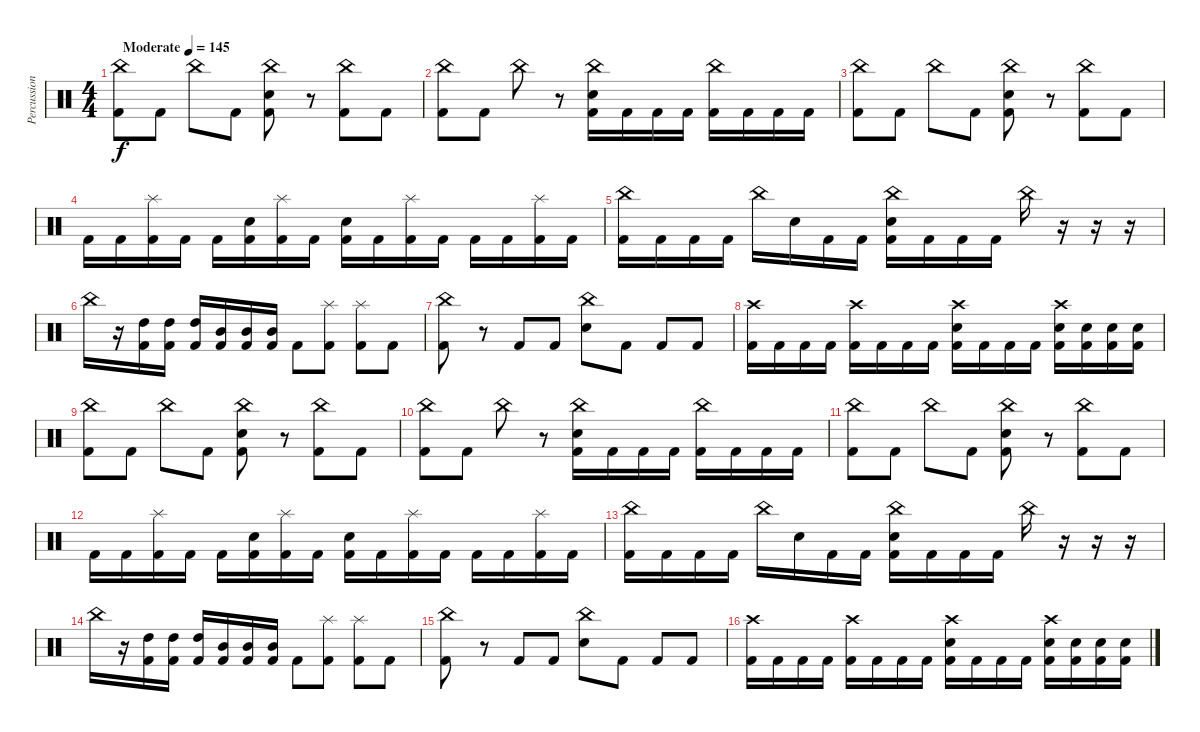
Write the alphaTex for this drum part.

\track ("Percussion" "Percussion") {instrument percussion}
\staff {score}
\articulation defaults
\ts (4 4)
\tempo (145 "Moderate")
\clef neutral
\ks c
("China (hit)" "Kick (hit) 2").8{dy f} "Kick (hit) 2".8 "China (hit)".8 "Kick (hit) 2".8 ("China (hit)" "Snare (hit) 2" "Kick (hit) 2").8 r.8 ("China (hit)" "Kick (hit) 2").8 "Kick (hit) 2".8 |
("China (hit)" "Kick (hit) 2").8 "Kick (hit) 2".8 "China (hit)".8 r.8 ("China (hit)" "Snare (hit) 2" "Kick (hit) 2").16 "Kick (hit) 2".16 "Kick (hit) 2".16 "Kick (hit) 2".16 ("China (hit)" "Kick (hit) 2").16 "Kick (hit) 2".16 "Kick (hit) 2".16 "Kick (hit) 2".16 |
("China (hit)" "Kick (hit) 2").8 "Kick (hit) 2".8 "China (hit)".8 "Kick (hit) 2".8 ("China (hit)" "Snare (hit) 2" "Kick (hit) 2").8 r.8 ("China (hit)" "Kick (hit) 2").8 "Kick (hit) 2".8 |
"Kick (hit) 2".16 "Kick (hit) 2".16 ("Splash (hit)" "Kick (hit) 2").16 "Kick (hit) 2".16 "Kick (hit) 2".16 ("Snare (hit) 2" "Kick (hit) 2").16 ("Splash (hit)" "Kick (hit) 2").16 "Kick (hit) 2".16 ("Snare (hit) 2" "Kick (hit) 2").16 "Kick (hit) 2".16 ("Splash (hit)" "Kick (hit) 2").16 "Kick (hit) 2".16 "Kick (hit) 2".16 "Kick (hit) 2".16 ("Splash (hit)" "Kick (hit) 2").16 "Kick (hit) 2".16 |
("China (hit)" "Kick (hit) 2").16 "Kick (hit) 2".16 "Kick (hit) 2".16 "Kick (hit) 2".16 "China (hit)".16 "Snare (hit) 2".16 "Kick (hit) 2".16 "Kick (hit) 2".16 ("China (hit)" "Snare (hit) 2" "Kick (hit) 2").16 "Kick (hit) 2".16 "Kick (hit) 2".16 "Kick (hit) 2".16 "China (hit)".16 r.16 r.16 r.16 |
"China (hit)".16 r.16 ("High Tom (hit)" "Kick (hit) 2").16 ("High Tom (hit)" "Kick (hit) 2").16 ("High Tom (hit)" "Kick (hit) 2").16 ("Mid Tom (hit)" "Kick (hit) 2").16 ("Mid Tom (hit)" "Kick (hit) 2").16 ("Mid Tom (hit)" "Kick (hit) 2").16 "Kick (hit) 2".8 ("Splash (hit)" "Kick (hit) 2").8 ("Splash (hit)" "Kick (hit) 2").8 "Kick (hit) 2".8 |
("China (hit)" "Kick (hit) 2").8 r.8 "Kick (hit) 2".8 "Kick (hit) 2".8 ("China (hit)" "Snare (hit) 2").8 "Kick (hit) 2".8 "Kick (hit) 2".8 "Kick (hit) 2".8 |
("Crash high (hit)" "Kick (hit) 2").16 "Kick (hit) 2".16 "Kick (hit) 2".16 "Kick (hit) 2".16 ("Crash high (hit)" "Kick (hit) 2").16 "Kick (hit) 2".16 "Kick (hit) 2".16 "Kick (hit) 2".16 ("Crash high (hit)" "Snare (hit) 2" "Kick (hit) 2").16 "Kick (hit) 2".16 "Kick (hit) 2".16 "Kick (hit) 2".16 ("Crash high (hit)" "Snare (hit) 2" "Kick (hit) 2").16 ("Snare (hit) 2" "Kick (hit) 2").16 ("Snare (hit) 2" "Kick (hit) 2").16 ("Snare (hit) 2" "Kick (hit) 2").16 |
("China (hit)" "Kick (hit) 2").8 "Kick (hit) 2".8 "China (hit)".8 "Kick (hit) 2".8 ("China (hit)" "Snare (hit) 2" "Kick (hit) 2").8 r.8 ("China (hit)" "Kick (hit) 2").8 "Kick (hit) 2".8 |
("China (hit)" "Kick (hit) 2").8 "Kick (hit) 2".8 "China (hit)".8 r.8 ("China (hit)" "Snare (hit) 2" "Kick (hit) 2").16 "Kick (hit) 2".16 "Kick (hit) 2".16 "Kick (hit) 2".16 ("China (hit)" "Kick (hit) 2").16 "Kick (hit) 2".16 "Kick (hit) 2".16 "Kick (hit) 2".16 |
("China (hit)" "Kick (hit) 2").8 "Kick (hit) 2".8 "China (hit)".8 "Kick (hit) 2".8 ("China (hit)" "Snare (hit) 2" "Kick (hit) 2").8 r.8 ("China (hit)" "Kick (hit) 2").8 "Kick (hit) 2".8 |
"Kick (hit) 2".16 "Kick (hit) 2".16 ("Splash (hit)" "Kick (hit) 2").16 "Kick (hit) 2".16 "Kick (hit) 2".16 ("Snare (hit) 2" "Kick (hit) 2").16 ("Splash (hit)" "Kick (hit) 2").16 "Kick (hit) 2".16 ("Snare (hit) 2" "Kick (hit) 2").16 "Kick (hit) 2".16 ("Splash (hit)" "Kick (hit) 2").16 "Kick (hit) 2".16 "Kick (hit) 2".16 "Kick (hit) 2".16 ("Splash (hit)" "Kick (hit) 2").16 "Kick (hit) 2".16 |
("China (hit)" "Kick (hit) 2").16 "Kick (hit) 2".16 "Kick (hit) 2".16 "Kick (hit) 2".16 "China (hit)".16 "Snare (hit) 2".16 "Kick (hit) 2".16 "Kick (hit) 2".16 ("China (hit)" "Snare (hit) 2" "Kick (hit) 2").16 "Kick (hit) 2".16 "Kick (hit) 2".16 "Kick (hit) 2".16 "China (hit)".16 r.16 r.16 r.16 |
"China (hit)".16 r.16 ("High Tom (hit)" "Kick (hit) 2").16 ("High Tom (hit)" "Kick (hit) 2").16 ("High Tom (hit)" "Kick (hit) 2").16 ("Mid Tom (hit)" "Kick (hit) 2").16 ("Mid Tom (hit)" "Kick (hit) 2").16 ("Mid Tom (hit)" "Kick (hit) 2").16 "Kick (hit) 2".8 ("Splash (hit)" "Kick (hit) 2").8 ("Splash (hit)" "Kick (hit) 2").8 "Kick (hit) 2".8 |
("China (hit)" "Kick (hit) 2").8 r.8 "Kick (hit) 2".8 "Kick (hit) 2".8 ("China (hit)" "Snare (hit) 2").8 "Kick (hit) 2".8 "Kick (hit) 2".8 "Kick (hit) 2".8 |
("Crash high (hit)" "Kick (hit) 2").16 "Kick (hit) 2".16 "Kick (hit) 2".16 "Kick (hit) 2".16 ("Crash high (hit)" "Kick (hit) 2").16 "Kick (hit) 2".16 "Kick (hit) 2".16 "Kick (hit) 2".16 ("Crash high (hit)" "Snare (hit) 2" "Kick (hit) 2").16 "Kick (hit) 2".16 "Kick (hit) 2".16 "Kick (hit) 2".16 ("Crash high (hit)" "Snare (hit) 2" "Kick (hit) 2").16 ("Snare (hit) 2" "Kick (hit) 2").16 ("Snare (hit) 2" "Kick (hit) 2").16 ("Snare (hit) 2" "Kick (hit) 2").16
